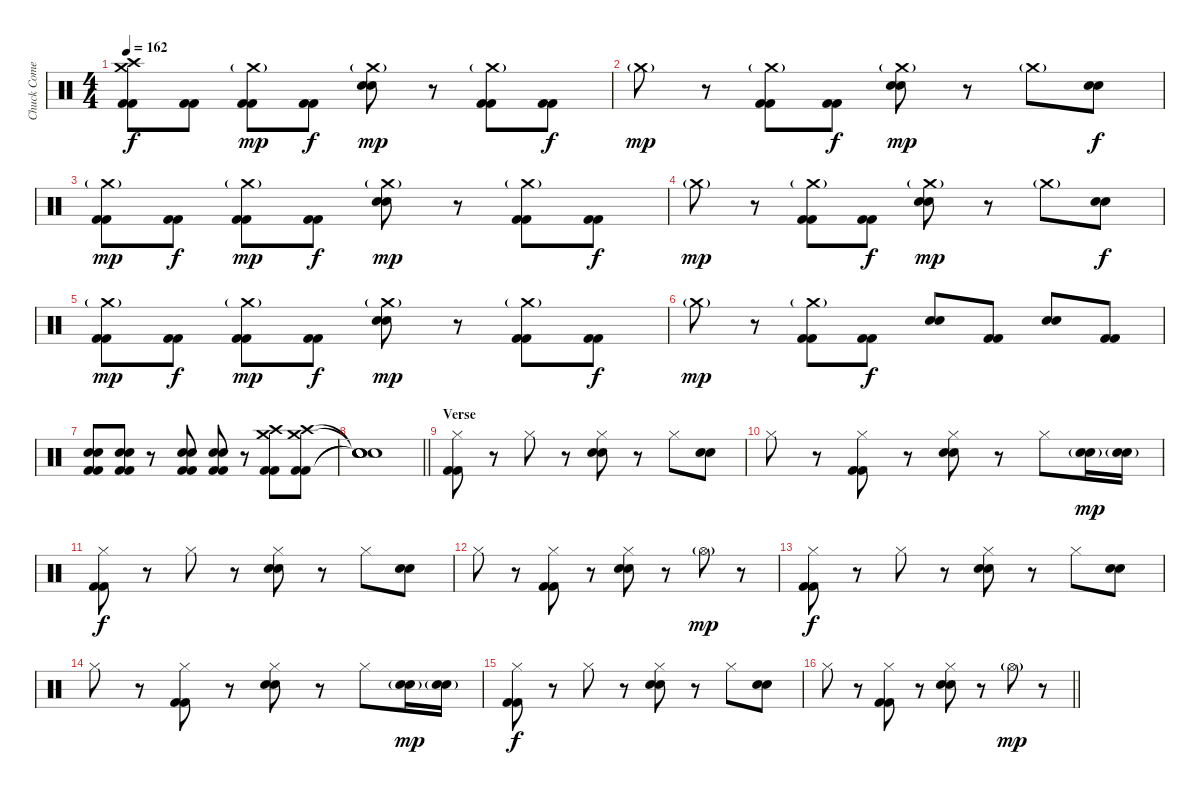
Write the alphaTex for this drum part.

\track ("Chuck Comeau" "Chuck Come") {instrument percussion}
\staff {score}
\articulation defaults
\ts (4 4)
\tempo 162
\clef neutral
\ks c
("Crash medium (hit)" "Crash high (hit)" "Kick (hit) 2" "Kick (hit) 2").8{dy f} ("Kick (hit) 2" "Kick (hit) 2").8 ("Crash medium (hit)"{g} "Kick (hit) 2" "Kick (hit) 2").8{dy mp} ("Kick (hit) 2" "Kick (hit) 2").8{dy f} ("Crash medium (hit)"{g} "Snare (hit) 2" "Snare (hit) 2").8{dy mp} r.8 ("Crash medium (hit)"{g} "Kick (hit) 2" "Kick (hit) 2").8 ("Kick (hit) 2" "Kick (hit) 2").8{dy f} |
"Crash medium (hit)"{g}.8{dy mp} r.8 ("Crash medium (hit)"{g} "Kick (hit) 2" "Kick (hit) 2").8 ("Kick (hit) 2" "Kick (hit) 2").8{dy f} ("Crash medium (hit)"{g} "Snare (hit) 2" "Snare (hit) 2").8{dy mp} r.8 "Crash medium (hit)"{g}.8 ("Snare (hit) 2" "Snare (hit) 2").8{dy f} |
("Crash medium (hit)"{g} "Kick (hit) 2" "Kick (hit) 2").8{dy mp} ("Kick (hit) 2" "Kick (hit) 2").8{dy f} ("Crash medium (hit)"{g} "Kick (hit) 2" "Kick (hit) 2").8{dy mp} ("Kick (hit) 2" "Kick (hit) 2").8{dy f} ("Crash medium (hit)"{g} "Snare (hit) 2" "Snare (hit) 2").8{dy mp} r.8 ("Crash medium (hit)"{g} "Kick (hit) 2" "Kick (hit) 2").8 ("Kick (hit) 2" "Kick (hit) 2").8{dy f} |
"Crash medium (hit)"{g}.8{dy mp} r.8 ("Crash medium (hit)"{g} "Kick (hit) 2" "Kick (hit) 2").8 ("Kick (hit) 2" "Kick (hit) 2").8{dy f} ("Crash medium (hit)"{g} "Snare (hit) 2" "Snare (hit) 2").8{dy mp} r.8 "Crash medium (hit)"{g}.8 ("Snare (hit) 2" "Snare (hit) 2").8{dy f} |
("Crash medium (hit)"{g} "Kick (hit) 2" "Kick (hit) 2").8{dy mp} ("Kick (hit) 2" "Kick (hit) 2").8{dy f} ("Crash medium (hit)"{g} "Kick (hit) 2" "Kick (hit) 2").8{dy mp} ("Kick (hit) 2" "Kick (hit) 2").8{dy f} ("Crash medium (hit)"{g} "Snare (hit) 2" "Snare (hit) 2").8{dy mp} r.8 ("Crash medium (hit)"{g} "Kick (hit) 2" "Kick (hit) 2").8 ("Kick (hit) 2" "Kick (hit) 2").8{dy f} |
"Crash medium (hit)"{g}.8{dy mp} r.8 ("Crash medium (hit)"{g} "Kick (hit) 2" "Kick (hit) 2").8 ("Kick (hit) 2" "Kick (hit) 2").8{dy f} ("Snare (hit) 2"{tr (38 16)} "Snare (hit) 2").8 ("Kick (hit) 2" "Kick (hit) 2").8 ("Snare (hit) 2"{tr (38 16)} "Snare (hit) 2").8 ("Kick (hit) 2" "Kick (hit) 2").8 |
("Snare (hit) 2"{tr (38 16)} "Snare (hit) 2" "Kick (hit) 2" "Kick (hit) 2").8 ("Snare (hit) 2"{tr (38 16)} "Snare (hit) 2" "Kick (hit) 2" "Kick (hit) 2").8 r.8 ("Snare (hit) 2"{tr (38 16)} "Snare (hit) 2" "Kick (hit) 2" "Kick (hit) 2").8 ("Snare (hit) 2"{tr (38 16)} "Snare (hit) 2" "Kick (hit) 2" "Kick (hit) 2").8 r.8 ("Crash medium (hit)" "Crash high (hit)" "Kick (hit) 2" "Kick (hit) 2").8 ("Crash medium (hit)" "Crash high (hit)" "Kick (hit) 2" "Kick (hit) 2").8 |
\barLineRight lightlight
("Snare (hit)"{t} "Snare (hit)"{t} "Snare (hit)"{t} "Snare (hit)"{t}).1 |
\section ("" "Verse")
("Hi-Hat (closed)" "Kick (hit) 2" "Kick (hit) 2").8 r.8 "Hi-Hat (closed)".8 r.8 ("Hi-Hat (closed)" "Snare (hit) 2" "Snare (hit) 2").8 r.8 "Hi-Hat (closed)".8 ("Snare (hit) 2" "Snare (hit) 2").8 |
"Hi-Hat (closed)".8 r.8 ("Hi-Hat (closed)" "Kick (hit) 2" "Kick (hit) 2").8 r.8 ("Hi-Hat (closed)" "Snare (hit) 2" "Snare (hit) 2").8 r.8 "Hi-Hat (closed)".8 ("Snare (hit) 2"{g} "Snare (hit) 2"{g}).16{dy mp} ("Snare (hit) 2"{g} "Snare (hit) 2"{g}).16 |
("Hi-Hat (closed)" "Kick (hit) 2" "Kick (hit) 2").8{dy f} r.8 "Hi-Hat (closed)".8 r.8 ("Hi-Hat (closed)" "Snare (hit) 2" "Snare (hit) 2").8 r.8 "Hi-Hat (closed)".8 ("Snare (hit) 2" "Snare (hit) 2").8 |
"Hi-Hat (closed)".8 r.8 ("Hi-Hat (closed)" "Kick (hit) 2" "Kick (hit) 2").8 r.8 ("Hi-Hat (closed)" "Snare (hit) 2" "Snare (hit) 2").8 r.8 "Hi-Hat (open)"{g}.8{dy mp} r.8 |
("Hi-Hat (closed)" "Kick (hit) 2" "Kick (hit) 2").8{dy f} r.8 "Hi-Hat (closed)".8 r.8 ("Hi-Hat (closed)" "Snare (hit) 2" "Snare (hit) 2").8 r.8 "Hi-Hat (closed)".8 ("Snare (hit) 2" "Snare (hit) 2").8 |
"Hi-Hat (closed)".8 r.8 ("Hi-Hat (closed)" "Kick (hit) 2" "Kick (hit) 2").8 r.8 ("Hi-Hat (closed)" "Snare (hit) 2" "Snare (hit) 2").8 r.8 "Hi-Hat (closed)".8 ("Snare (hit) 2"{g} "Snare (hit) 2"{g}).16{dy mp} ("Snare (hit) 2"{g} "Snare (hit) 2"{g}).16 |
("Hi-Hat (closed)" "Kick (hit) 2" "Kick (hit) 2").8{dy f} r.8 "Hi-Hat (closed)".8 r.8 ("Hi-Hat (closed)" "Snare (hit) 2" "Snare (hit) 2").8 r.8 "Hi-Hat (closed)".8 ("Snare (hit) 2" "Snare (hit) 2").8 |
\barLineRight lightlight "Hi-Hat (closed)".8
r.8 ("Hi-Hat (closed)" "Kick (hit) 2" "Kick (hit) 2").8 r.8 ("Hi-Hat (closed)" "Snare (hit) 2" "Snare (hit) 2").8 r.8 "Hi-Hat (open)"{g}.8{dy mp} r.8
